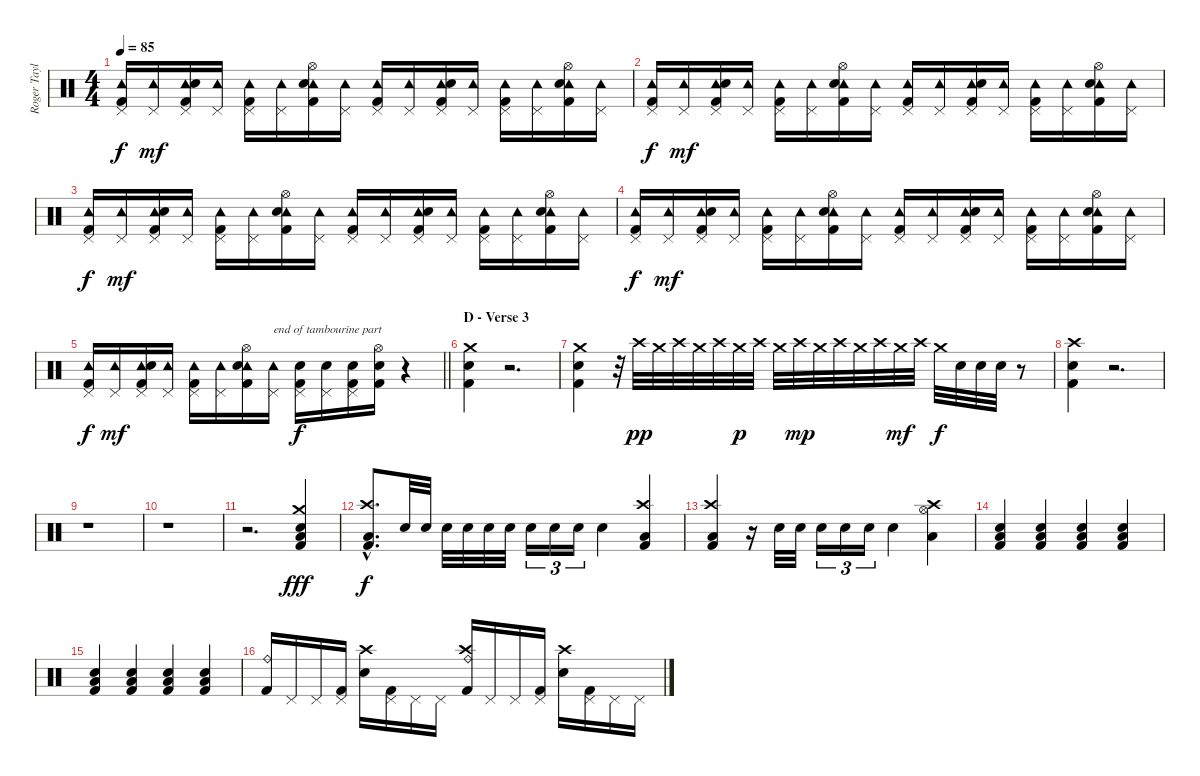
\track ("Roger Taylor - Drums" "Roger Tayl") {instrument percussion}
\staff {score}
\articulation defaults
\ts (4 4)
\tempo 85
\clef neutral
\ks c
("Tambourine (hit)" "Pedal Hi-Hat (hit)" "Kick (hit) 2").16{dy f} ("Tambourine (hit)" "Pedal Hi-Hat (hit)").16{dy mf} ("Tambourine (hit)" "Pedal Hi-Hat (hit)" "Electric Snare (hit)" "Kick (hit) 2").16 ("Tambourine (hit)" "Pedal Hi-Hat (hit)").16 ("Tambourine (hit)" "Pedal Hi-Hat (hit)" "Kick (hit) 2").16 ("Tambourine (hit)" "Pedal Hi-Hat (hit)").16 ("Tambourine (hit)" "Electric Snare (hit)" "Hi-Hat (open)" "Kick (hit) 2").16 ("Tambourine (hit)" "Pedal Hi-Hat (hit)").16 ("Tambourine (hit)" "Pedal Hi-Hat (hit)" "Kick (hit) 2").16 ("Tambourine (hit)" "Pedal Hi-Hat (hit)").16 ("Tambourine (hit)" "Pedal Hi-Hat (hit)" "Electric Snare (hit)" "Kick (hit) 2").16 ("Tambourine (hit)" "Pedal Hi-Hat (hit)").16 ("Tambourine (hit)" "Pedal Hi-Hat (hit)" "Kick (hit) 2").16 ("Tambourine (hit)" "Pedal Hi-Hat (hit)").16 ("Tambourine (hit)" "Electric Snare (hit)" "Hi-Hat (open)" "Kick (hit) 2").16 ("Tambourine (hit)" "Pedal Hi-Hat (hit)").16 |
("Tambourine (hit)" "Pedal Hi-Hat (hit)" "Kick (hit) 2").16{dy f} ("Tambourine (hit)" "Pedal Hi-Hat (hit)").16{dy mf} ("Tambourine (hit)" "Pedal Hi-Hat (hit)" "Electric Snare (hit)" "Kick (hit) 2").16 ("Tambourine (hit)" "Pedal Hi-Hat (hit)").16 ("Tambourine (hit)" "Pedal Hi-Hat (hit)" "Kick (hit) 2").16 ("Tambourine (hit)" "Pedal Hi-Hat (hit)").16 ("Tambourine (hit)" "Electric Snare (hit)" "Hi-Hat (open)" "Kick (hit) 2").16 ("Tambourine (hit)" "Pedal Hi-Hat (hit)").16 ("Tambourine (hit)" "Pedal Hi-Hat (hit)" "Kick (hit) 2").16 ("Tambourine (hit)" "Pedal Hi-Hat (hit)").16 ("Tambourine (hit)" "Pedal Hi-Hat (hit)" "Electric Snare (hit)" "Kick (hit) 2").16 ("Tambourine (hit)" "Pedal Hi-Hat (hit)").16 ("Tambourine (hit)" "Pedal Hi-Hat (hit)" "Kick (hit) 2").16 ("Tambourine (hit)" "Pedal Hi-Hat (hit)").16 ("Tambourine (hit)" "Electric Snare (hit)" "Hi-Hat (open)" "Kick (hit) 2").16 ("Tambourine (hit)" "Pedal Hi-Hat (hit)").16 |
("Tambourine (hit)" "Pedal Hi-Hat (hit)" "Kick (hit) 2").16{dy f} ("Tambourine (hit)" "Pedal Hi-Hat (hit)").16{dy mf} ("Tambourine (hit)" "Pedal Hi-Hat (hit)" "Electric Snare (hit)" "Kick (hit) 2").16 ("Tambourine (hit)" "Pedal Hi-Hat (hit)").16 ("Tambourine (hit)" "Pedal Hi-Hat (hit)" "Kick (hit) 2").16 ("Tambourine (hit)" "Pedal Hi-Hat (hit)").16 ("Tambourine (hit)" "Electric Snare (hit)" "Hi-Hat (open)" "Kick (hit) 2").16 ("Tambourine (hit)" "Pedal Hi-Hat (hit)").16 ("Tambourine (hit)" "Pedal Hi-Hat (hit)" "Kick (hit) 2").16 ("Tambourine (hit)" "Pedal Hi-Hat (hit)").16 ("Tambourine (hit)" "Pedal Hi-Hat (hit)" "Electric Snare (hit)" "Kick (hit) 2").16 ("Tambourine (hit)" "Pedal Hi-Hat (hit)").16 ("Tambourine (hit)" "Pedal Hi-Hat (hit)" "Kick (hit) 2").16 ("Tambourine (hit)" "Pedal Hi-Hat (hit)").16 ("Tambourine (hit)" "Electric Snare (hit)" "Hi-Hat (open)" "Kick (hit) 2").16 ("Tambourine (hit)" "Pedal Hi-Hat (hit)").16 |
("Tambourine (hit)" "Pedal Hi-Hat (hit)" "Kick (hit) 2").16{dy f} ("Tambourine (hit)" "Pedal Hi-Hat (hit)").16{dy mf} ("Tambourine (hit)" "Pedal Hi-Hat (hit)" "Electric Snare (hit)" "Kick (hit) 2").16 ("Tambourine (hit)" "Pedal Hi-Hat (hit)").16 ("Tambourine (hit)" "Pedal Hi-Hat (hit)" "Kick (hit) 2").16 ("Tambourine (hit)" "Pedal Hi-Hat (hit)").16 ("Tambourine (hit)" "Electric Snare (hit)" "Hi-Hat (open)" "Kick (hit) 2").16 ("Tambourine (hit)" "Pedal Hi-Hat (hit)").16 ("Tambourine (hit)" "Pedal Hi-Hat (hit)" "Kick (hit) 2").16 ("Tambourine (hit)" "Pedal Hi-Hat (hit)").16 ("Tambourine (hit)" "Pedal Hi-Hat (hit)" "Electric Snare (hit)" "Kick (hit) 2").16 ("Tambourine (hit)" "Pedal Hi-Hat (hit)").16 ("Tambourine (hit)" "Pedal Hi-Hat (hit)" "Kick (hit) 2").16 ("Tambourine (hit)" "Pedal Hi-Hat (hit)").16 ("Tambourine (hit)" "Electric Snare (hit)" "Hi-Hat (open)" "Kick (hit) 2").16 ("Tambourine (hit)" "Pedal Hi-Hat (hit)").16 |
\barLineRight lightlight
("Tambourine (hit)" "Pedal Hi-Hat (hit)" "Kick (hit) 2").16{dy f} ("Tambourine (hit)" "Pedal Hi-Hat (hit)").16{dy mf} ("Tambourine (hit)" "Pedal Hi-Hat (hit)" "Electric Snare (hit)" "Kick (hit) 2").16 ("Tambourine (hit)" "Pedal Hi-Hat (hit)").16 ("Tambourine (hit)" "Pedal Hi-Hat (hit)" "Kick (hit) 2").16 ("Tambourine (hit)" "Pedal Hi-Hat (hit)").16 ("Tambourine (hit)" "Hi-Hat (open)" "Electric Snare (hit)" "Kick (hit) 2").16 ("Tambourine (hit)" "Pedal Hi-Hat (hit)").16{txt "end of tambourine part"} ("Pedal Hi-Hat (hit)" "Electric Snare (hit)" "Kick (hit) 2").16{dy f} ("Pedal Hi-Hat (hit)" "Electric Snare (hit)").16 ("Pedal Hi-Hat (hit)" "Electric Snare (hit)" "Kick (hit) 2").16 ("Hi-Hat (open)" "Electric Snare (hit)" "Kick (hit) 2").16 r.4 |
\section ("" "D - Verse 3")
("Crash medium (hit)" "Electric Snare (hit)" "Kick (hit) 2").4 r.2{d} |
("Crash medium (hit)" "Electric Snare (hit)" "Kick (hit) 2").4 r.32 "Crash high (hit)".32{dy pp} "Crash medium (hit)".32 "Crash high (hit)".32 "Crash medium (hit)".32 "Crash high (hit)".32 "Crash medium (hit)".32{dy p} "Crash high (hit)".32 "Crash medium (hit)".32 "Crash high (hit)".32{dy mp} "Crash medium (hit)".32 "Crash high (hit)".32 "Crash medium (hit)".32 "Crash high (hit)".32 "Crash medium (hit)".32{dy mf} "Crash high (hit)".32 "Crash medium (hit)".32{dy f} "Electric Snare (hit)".32 "Electric Snare (hit)".32 "Electric Snare (hit)".32 r.8 |
("Crash high (hit)" "Electric Snare (hit)" "Kick (hit) 2").4 r.2{d} |
r.1 |
r.1 |
r.2{d} ("Crash medium (hit)" "Low Floor Tom (hit)" "Electric Snare (hit)" "Kick (hit) 2").4{dy fff} |
("Low Floor Tom (hit)"{hac} "Crash high (hit)"{hac} "Kick (hit) 2"{hac}).8{d dy f} "Electric Snare (hit)".32 "Electric Snare (hit)".32 "Electric Snare (hit)".32 "Electric Snare (hit)".32 "Electric Snare (hit)".32 "Electric Snare (hit)".32 "Electric Snare (hit)".16{tu (3 2)} "Electric Snare (hit)".16{tu (3 2)} "Electric Snare (hit)".16{tu (3 2)} "Electric Snare (hit)".4 ("Crash high (hit)" "Kick (hit) 2" "Low Floor Tom (hit)").4 |
("Crash high (hit)" "Low Floor Tom (hit)" "Kick (hit) 2").4 r.16 "Electric Snare (hit)".32 "Electric Snare (hit)".32 "Electric Snare (hit)".16{tu (3 2)} "Electric Snare (hit)".16{tu (3 2)} "Electric Snare (hit)".16{tu (3 2)} "Electric Snare (hit)".4 ("Crash high (hit)" "Low Floor Tom (hit)" "Hi-Hat (open)").4 |
("Low Floor Tom (hit)" "Electric Snare (hit)" "Kick (hit) 2").4 ("Low Floor Tom (hit)" "Electric Snare (hit)" "Kick (hit) 2").4 ("Low Floor Tom (hit)" "Electric Snare (hit)" "Kick (hit) 2").4 ("Low Floor Tom (hit)" "Electric Snare (hit)" "Kick (hit) 2").4 |
("Low Floor Tom (hit)" "Electric Snare (hit)" "Kick (hit) 2").4 ("Low Floor Tom (hit)" "Electric Snare (hit)" "Kick (hit) 2").4 ("Low Floor Tom (hit)" "Electric Snare (hit)" "Kick (hit) 2").4 ("Low Floor Tom (hit)" "Electric Snare (hit)" "Kick (hit) 2").4 |
("Ride (bell)" "Kick (hit) 2").16 "Pedal Hi-Hat (hit)".16 "Pedal Hi-Hat (hit)".16 ("Pedal Hi-Hat (hit)" "Kick (hit) 2").16 ("Crash high (hit)" "Electric Snare (hit)").16 ("Pedal Hi-Hat (hit)" "Kick (hit) 2").16 "Pedal Hi-Hat (hit)".16 "Pedal Hi-Hat (hit)".16 ("Ride (bell)" "Crash high (hit)" "Kick (hit) 2").16 "Pedal Hi-Hat (hit)".16 "Pedal Hi-Hat (hit)".16 ("Pedal Hi-Hat (hit)" "Kick (hit) 2").16 ("Crash high (hit)" "Electric Snare (hit)").16 ("Pedal Hi-Hat (hit)" "Kick (hit) 2").16 "Pedal Hi-Hat (hit)".16 "Pedal Hi-Hat (hit)".16
